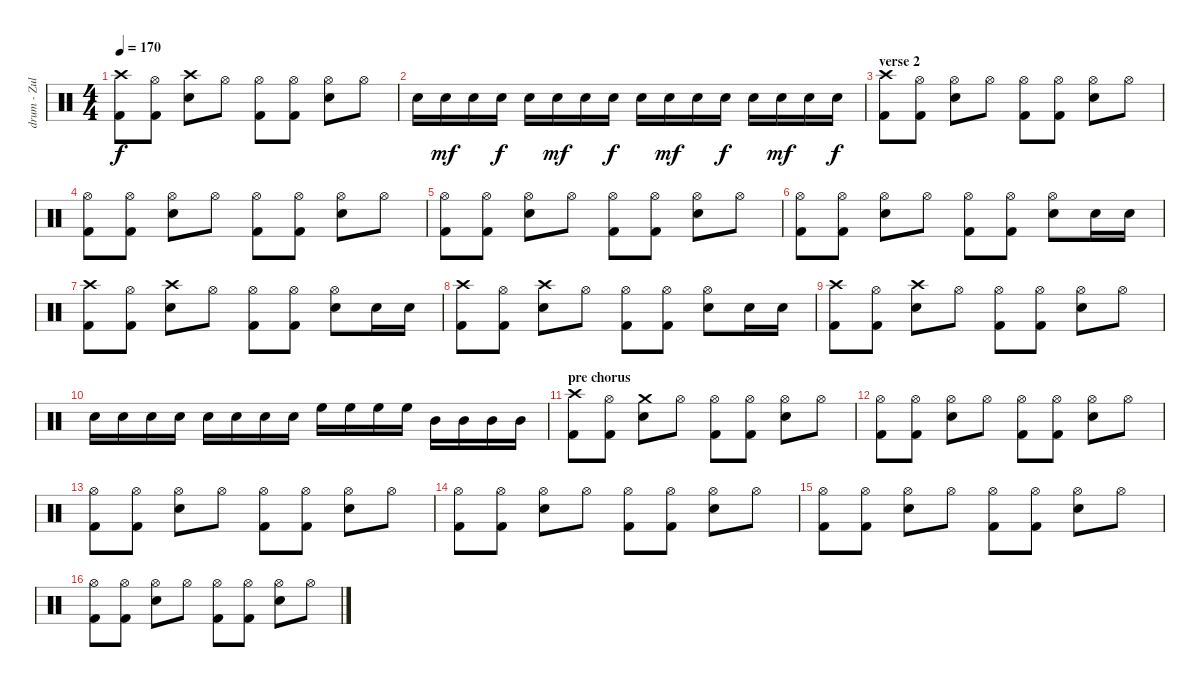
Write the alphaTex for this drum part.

\track ("drum - Zul ???" "drum - Zul") {instrument percussion}
\staff {score}
\articulation defaults
\ts (4 4)
\tempo 170
\clef neutral
\ks c
("Crash high (hit)" "Kick (hit) 2").8{dy f} ("Hi-Hat (open)" "Kick (hit) 2").8 ("Crash high (hit)" "Snare (hit) 2").8 "Hi-Hat (open)".8 ("Hi-Hat (open)" "Kick (hit) 2").8 ("Hi-Hat (open)" "Kick (hit) 2").8 ("Hi-Hat (open)" "Snare (hit) 2").8 "Hi-Hat (open)".8 |
"Snare (hit) 2".16 "Snare (hit) 2".16{dy mf} "Snare (hit) 2".16 "Snare (hit) 2".16{dy f} "Snare (hit) 2".16 "Snare (hit) 2".16{dy mf} "Snare (hit) 2".16 "Snare (hit) 2".16{dy f} "Snare (hit) 2".16 "Snare (hit) 2".16{dy mf} "Snare (hit) 2".16 "Snare (hit) 2".16{dy f} "Snare (hit) 2".16 "Snare (hit) 2".16{dy mf} "Snare (hit) 2".16 "Snare (hit) 2".16{dy f} |
\section ("" "verse 2")
("Crash high (hit)" "Kick (hit) 2").8 ("Hi-Hat (open)" "Kick (hit) 2").8 ("Hi-Hat (open)" "Snare (hit) 2").8 "Hi-Hat (open)".8 ("Hi-Hat (open)" "Kick (hit) 2").8 ("Hi-Hat (open)" "Kick (hit) 2").8 ("Hi-Hat (open)" "Snare (hit) 2").8 "Hi-Hat (open)".8 |
("Hi-Hat (open)" "Kick (hit) 2").8 ("Hi-Hat (open)" "Kick (hit) 2").8 ("Hi-Hat (open)" "Snare (hit) 2").8 "Hi-Hat (open)".8 ("Hi-Hat (open)" "Kick (hit) 2").8 ("Hi-Hat (open)" "Kick (hit) 2").8 ("Hi-Hat (open)" "Snare (hit) 2").8 "Hi-Hat (open)".8 |
("Hi-Hat (open)" "Kick (hit) 2").8 ("Hi-Hat (open)" "Kick (hit) 2").8 ("Hi-Hat (open)" "Snare (hit) 2").8 "Hi-Hat (open)".8 ("Hi-Hat (open)" "Kick (hit) 2").8 ("Hi-Hat (open)" "Kick (hit) 2").8 ("Hi-Hat (open)" "Snare (hit) 2").8 "Hi-Hat (open)".8 |
("Hi-Hat (open)" "Kick (hit) 2").8 ("Hi-Hat (open)" "Kick (hit) 2").8 ("Hi-Hat (open)" "Snare (hit) 2").8 "Hi-Hat (open)".8 ("Hi-Hat (open)" "Kick (hit) 2").8 ("Hi-Hat (open)" "Kick (hit) 2").8 ("Hi-Hat (open)" "Snare (hit) 2").8 "Snare (hit) 2".16 "Snare (hit) 2".16 |
("Crash high (hit)" "Kick (hit) 2").8 ("Hi-Hat (open)" "Kick (hit) 2").8 ("Crash high (hit)" "Snare (hit) 2").8 "Hi-Hat (open)".8 ("Hi-Hat (open)" "Kick (hit) 2").8 ("Hi-Hat (open)" "Kick (hit) 2").8 ("Hi-Hat (open)" "Snare (hit) 2").8 "Snare (hit) 2".16 "Snare (hit) 2".16 |
("Crash high (hit)" "Kick (hit) 2").8 ("Hi-Hat (open)" "Kick (hit) 2").8 ("Crash high (hit)" "Snare (hit) 2").8 "Hi-Hat (open)".8 ("Hi-Hat (open)" "Kick (hit) 2").8 ("Hi-Hat (open)" "Kick (hit) 2").8 ("Hi-Hat (open)" "Snare (hit) 2").8 "Snare (hit) 2".16 "Snare (hit) 2".16 |
("Crash high (hit)" "Kick (hit) 2").8 ("Hi-Hat (open)" "Kick (hit) 2").8 ("Crash high (hit)" "Snare (hit) 2").8 "Hi-Hat (open)".8 ("Hi-Hat (open)" "Kick (hit) 2").8 ("Hi-Hat (open)" "Kick (hit) 2").8 ("Hi-Hat (open)" "Snare (hit) 2").8 "Hi-Hat (open)".8 |
"Snare (hit) 2".16 "Snare (hit) 2".16 "Snare (hit) 2".16 "Snare (hit) 2".16 "Snare (hit) 2".16 "Snare (hit) 2".16 "Snare (hit) 2".16 "Snare (hit) 2".16 "High Floor Tom (hit)".16 "High Floor Tom (hit)".16 "High Floor Tom (hit)".16 "High Floor Tom (hit)".16 "Mid Tom (hit)".16 "Mid Tom (hit)".16 "Mid Tom (hit)".16 "Mid Tom (hit)".16 |
\section ("" "pre chorus")
("Crash high (hit)" "Kick (hit) 2").8 ("Hi-Hat (open)" "Kick (hit) 2").8 ("Crash medium (hit)" "Snare (hit) 2").8 "Hi-Hat (open)".8 ("Hi-Hat (open)" "Kick (hit) 2").8 ("Hi-Hat (open)" "Kick (hit) 2").8 ("Hi-Hat (open)" "Snare (hit) 2").8 "Hi-Hat (open)".8 |
("Hi-Hat (open)" "Kick (hit) 2").8 ("Hi-Hat (open)" "Kick (hit) 2").8 ("Hi-Hat (open)" "Snare (hit) 2").8 "Hi-Hat (open)".8 ("Hi-Hat (open)" "Kick (hit) 2").8 ("Hi-Hat (open)" "Kick (hit) 2").8 ("Hi-Hat (open)" "Snare (hit) 2").8 "Hi-Hat (open)".8 |
("Hi-Hat (open)" "Kick (hit) 2").8 ("Hi-Hat (open)" "Kick (hit) 2").8 ("Hi-Hat (open)" "Snare (hit) 2").8 "Hi-Hat (open)".8 ("Hi-Hat (open)" "Kick (hit) 2").8 ("Hi-Hat (open)" "Kick (hit) 2").8 ("Hi-Hat (open)" "Snare (hit) 2").8 "Hi-Hat (open)".8 |
("Hi-Hat (open)" "Kick (hit) 2").8 ("Hi-Hat (open)" "Kick (hit) 2").8 ("Hi-Hat (open)" "Snare (hit) 2").8 "Hi-Hat (open)".8 ("Hi-Hat (open)" "Kick (hit) 2").8 ("Hi-Hat (open)" "Kick (hit) 2").8 ("Hi-Hat (open)" "Snare (hit) 2").8 "Hi-Hat (open)".8 |
("Hi-Hat (open)" "Kick (hit) 2").8 ("Hi-Hat (open)" "Kick (hit) 2").8 ("Hi-Hat (open)" "Snare (hit) 2").8 "Hi-Hat (open)".8 ("Hi-Hat (open)" "Kick (hit) 2").8 ("Hi-Hat (open)" "Kick (hit) 2").8 ("Hi-Hat (open)" "Snare (hit) 2").8 "Hi-Hat (open)".8 |
("Hi-Hat (open)" "Kick (hit) 2").8 ("Hi-Hat (open)" "Kick (hit) 2").8 ("Hi-Hat (open)" "Snare (hit) 2").8 "Hi-Hat (open)".8 ("Hi-Hat (open)" "Kick (hit) 2").8 ("Hi-Hat (open)" "Kick (hit) 2").8 ("Hi-Hat (open)" "Snare (hit) 2").8 "Hi-Hat (open)".8
